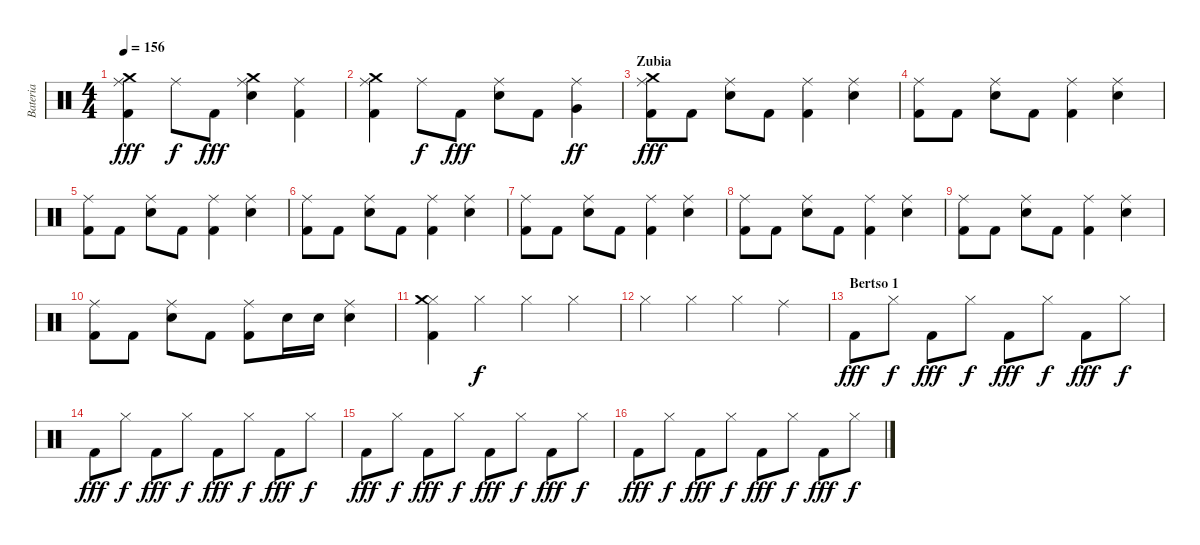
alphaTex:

\track ("Bateria" "Bateria") {instrument percussion}
\staff {score}
\articulation defaults
\ts (4 4)
\tempo 156
\clef neutral
\ks c
("Ride (middle)" "Kick (hit) 2" "Crash medium (hit)").4{dy fff} "Ride (middle)".8{dy f} "Kick (hit) 2".8{dy fff} ("Ride (middle)" "Electric Snare (hit)" "Crash medium (hit)").4 ("Ride (middle)" "Kick (hit) 2").4 |
("Ride (middle)" "Kick (hit) 2" "Crash medium (hit)").4 "Ride (middle)".8{dy f} "Kick (hit) 2".8{dy fff} ("Ride (middle)" "Electric Snare (hit)").8 "Kick (hit) 2".8 ("Ride (middle)" "Very Low Tom (hit)").4{dy ff} |
\section ("" "Zubia")
("Ride (middle)" "Kick (hit) 2" "Crash medium (hit)").8{dy fff} "Kick (hit) 2".8 ("Ride (middle)" "Electric Snare (hit)").8 "Kick (hit) 2".8 ("Ride (middle)" "Kick (hit) 2").4 ("Ride (middle)" "Electric Snare (hit)").4 |
("Ride (middle)" "Kick (hit) 2").8 "Kick (hit) 2".8 ("Ride (middle)" "Electric Snare (hit)").8 "Kick (hit) 2".8 ("Ride (middle)" "Kick (hit) 2").4 ("Ride (middle)" "Electric Snare (hit)").4 |
("Ride (middle)" "Kick (hit) 2").8 "Kick (hit) 2".8 ("Ride (middle)" "Electric Snare (hit)").8 "Kick (hit) 2".8 ("Ride (middle)" "Kick (hit) 2").4 ("Ride (middle)" "Electric Snare (hit)").4 |
("Ride (middle)" "Kick (hit) 2").8 "Kick (hit) 2".8 ("Ride (middle)" "Electric Snare (hit)").8 "Kick (hit) 2".8 ("Ride (middle)" "Kick (hit) 2").4 ("Ride (middle)" "Electric Snare (hit)").4 |
("Ride (middle)" "Kick (hit) 2").8 "Kick (hit) 2".8 ("Ride (middle)" "Electric Snare (hit)").8 "Kick (hit) 2".8 ("Ride (middle)" "Kick (hit) 2").4 ("Ride (middle)" "Electric Snare (hit)").4 |
("Ride (middle)" "Kick (hit) 2").8 "Kick (hit) 2".8 ("Ride (middle)" "Electric Snare (hit)").8 "Kick (hit) 2".8 ("Ride (middle)" "Kick (hit) 2").4 ("Ride (middle)" "Electric Snare (hit)").4 |
("Ride (middle)" "Kick (hit) 2").8 "Kick (hit) 2".8 ("Ride (middle)" "Electric Snare (hit)").8 "Kick (hit) 2".8 ("Ride (middle)" "Kick (hit) 2").4 ("Ride (middle)" "Electric Snare (hit)").4 |
("Ride (middle)" "Kick (hit) 2").8 "Kick (hit) 2".8 ("Ride (middle)" "Electric Snare (hit)").8 "Kick (hit) 2".8 ("Ride (middle)" "Kick (hit) 2").8 "Electric Snare (hit)".16 "Electric Snare (hit)".16 ("Ride (middle)" "Electric Snare (hit)").4 |
("Hi-Hat (closed)" "Kick (hit) 2" "Crash medium (hit)").4 "Hi-Hat (closed)".4{dy f} "Hi-Hat (closed)".4 "Hi-Hat (closed)".4 |
"Hi-Hat (closed)".4 "Hi-Hat (closed)".4 "Hi-Hat (closed)".4 "Ride (middle)".4 |
\section ("" "Bertso 1")
"Kick (hit) 2".8{dy fff} "Hi-Hat (closed)".8{dy f} "Kick (hit) 2".8{dy fff} "Hi-Hat (closed)".8{dy f} "Kick (hit) 2".8{dy fff} "Hi-Hat (closed)".8{dy f} "Kick (hit) 2".8{dy fff} "Hi-Hat (closed)".8{dy f} |
"Kick (hit) 2".8{dy fff} "Hi-Hat (closed)".8{dy f} "Kick (hit) 2".8{dy fff} "Hi-Hat (closed)".8{dy f} "Kick (hit) 2".8{dy fff} "Hi-Hat (closed)".8{dy f} "Kick (hit) 2".8{dy fff} "Hi-Hat (closed)".8{dy f} |
"Kick (hit) 2".8{dy fff} "Hi-Hat (closed)".8{dy f} "Kick (hit) 2".8{dy fff} "Hi-Hat (closed)".8{dy f} "Kick (hit) 2".8{dy fff} "Hi-Hat (closed)".8{dy f} "Kick (hit) 2".8{dy fff} "Hi-Hat (closed)".8{dy f} |
"Kick (hit) 2".8{dy fff} "Hi-Hat (closed)".8{dy f} "Kick (hit) 2".8{dy fff} "Hi-Hat (closed)".8{dy f} "Kick (hit) 2".8{dy fff} "Hi-Hat (closed)".8{dy f} "Kick (hit) 2".8{dy fff} "Hi-Hat (closed)".8{dy f}
